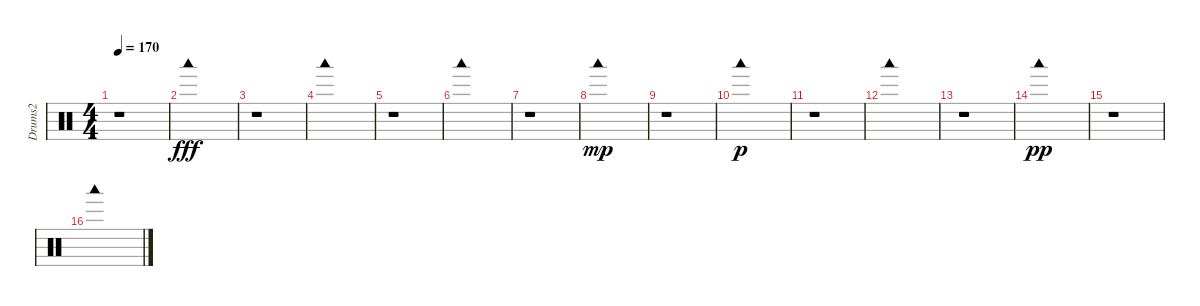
\track ("Drums2" "Drums2") {instrument percussion}
\staff {score}
\articulation defaults
\ts (4 4)
\tempo 170
\clef neutral
\ks c
r.1{dy fff} |
"Woodblock low (hit)".1 |
r.1 |
"Woodblock low (hit)".1 |
r.1 |
"Woodblock low (hit)".1 |
r.1 |
"Woodblock low (hit)".1{dy mp} |
r.1 |
"Woodblock low (hit)".1{dy p} |
r.1 |
"Woodblock low (hit)".1 |
r.1 |
"Woodblock low (hit)".1{dy pp} |
r.1 |
"Woodblock low (hit)".1
